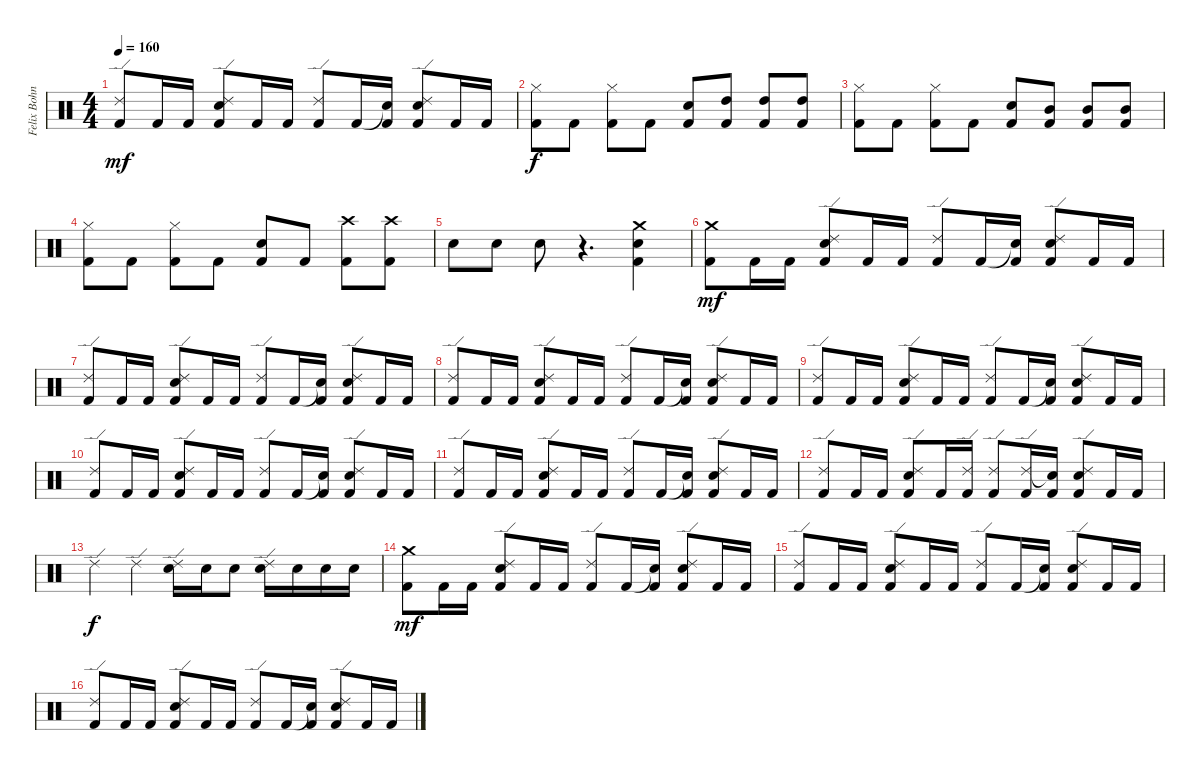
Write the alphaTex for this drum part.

\track ("Felix Bohnke" "Felix Bohn") {instrument percussion}
\staff {score}
\articulation defaults
\ts (4 4)
\tempo 160
\clef neutral
\ks c
("Ride (edge) 2" "Kick (hit) 2").8{dy mf} "Kick (hit) 2".16 "Kick (hit) 2".16 ("Ride (edge) 2" "Electric Snare (hit)" "Kick (hit) 2").8 "Kick (hit) 2".16 "Kick (hit) 2".16 ("Ride (edge) 2" "Kick (hit) 2").8 "Kick (hit) 2".16 ("Snare (hit)"{t} "Kick (hit) 2").16 ("Ride (edge) 2" "Electric Snare (hit)" "Kick (hit) 2").8 "Kick (hit) 2".16 "Kick (hit) 2".16 |
("Hi-Hat (closed)" "Kick (hit) 2").8{dy f} "Kick (hit) 2".8 ("Hi-Hat (closed)" "Kick (hit) 2").8 "Kick (hit) 2".8 ("Electric Snare (hit)" "Kick (hit) 2").8 ("High Tom (hit)" "Kick (hit) 2").8 ("High Tom (hit)" "Kick (hit) 2").8 ("High Tom (hit)" "Kick (hit) 2").8 |
("Hi-Hat (closed)" "Kick (hit) 2").8 "Kick (hit) 2".8 ("Hi-Hat (closed)" "Kick (hit) 2").8 "Kick (hit) 2".8 ("Electric Snare (hit)" "Kick (hit) 2").8 ("Mid Tom (hit)" "Kick (hit) 2").8 ("Mid Tom (hit)" "Kick (hit) 2").8 ("Mid Tom (hit)" "Kick (hit) 2").8 |
("Hi-Hat (closed)" "Kick (hit) 2").8 "Kick (hit) 2".8 ("Hi-Hat (closed)" "Kick (hit) 2").8 "Kick (hit) 2".8 ("Electric Snare (hit)" "Kick (hit) 2").8 "Kick (hit) 2".8 ("Crash high (hit)" "Kick (hit) 2").8 ("Crash high (hit)" "Kick (hit) 2").8 |
"Electric Snare (hit)".8 "Electric Snare (hit)".8 "Electric Snare (hit)".8 r.4{d} ("Crash medium (hit)" "Electric Snare (hit)" "Kick (hit) 2").4 |
("Crash medium (hit)" "Kick (hit) 2").8{dy mf} "Kick (hit) 2".16 "Kick (hit) 2".16 ("Ride (edge) 2" "Electric Snare (hit)" "Kick (hit) 2").8 "Kick (hit) 2".16 "Kick (hit) 2".16 ("Ride (edge) 2" "Kick (hit) 2").8 "Kick (hit) 2".16 ("Snare (hit)"{t} "Kick (hit) 2").16 ("Ride (edge) 2" "Electric Snare (hit)" "Kick (hit) 2").8 "Kick (hit) 2".16 "Kick (hit) 2".16 |
("Ride (edge) 2" "Kick (hit) 2").8 "Kick (hit) 2".16 "Kick (hit) 2".16 ("Ride (edge) 2" "Electric Snare (hit)" "Kick (hit) 2").8 "Kick (hit) 2".16 "Kick (hit) 2".16 ("Ride (edge) 2" "Kick (hit) 2").8 "Kick (hit) 2".16 ("Snare (hit)"{t} "Kick (hit) 2").16 ("Ride (edge) 2" "Electric Snare (hit)" "Kick (hit) 2").8 "Kick (hit) 2".16 "Kick (hit) 2".16 |
("Ride (edge) 2" "Kick (hit) 2").8 "Kick (hit) 2".16 "Kick (hit) 2".16 ("Ride (edge) 2" "Electric Snare (hit)" "Kick (hit) 2").8 "Kick (hit) 2".16 "Kick (hit) 2".16 ("Ride (edge) 2" "Kick (hit) 2").8 "Kick (hit) 2".16 ("Snare (hit)"{t} "Kick (hit) 2").16 ("Ride (edge) 2" "Electric Snare (hit)" "Kick (hit) 2").8 "Kick (hit) 2".16 "Kick (hit) 2".16 |
("Ride (edge) 2" "Kick (hit) 2").8 "Kick (hit) 2".16 "Kick (hit) 2".16 ("Ride (edge) 2" "Electric Snare (hit)" "Kick (hit) 2").8 "Kick (hit) 2".16 "Kick (hit) 2".16 ("Ride (edge) 2" "Kick (hit) 2").8 "Kick (hit) 2".16 ("Snare (hit)"{t} "Kick (hit) 2").16 ("Ride (edge) 2" "Electric Snare (hit)" "Kick (hit) 2").8 "Kick (hit) 2".16 "Kick (hit) 2".16 |
("Ride (edge) 2" "Kick (hit) 2").8 "Kick (hit) 2".16 "Kick (hit) 2".16 ("Ride (edge) 2" "Electric Snare (hit)" "Kick (hit) 2").8 "Kick (hit) 2".16 "Kick (hit) 2".16 ("Ride (edge) 2" "Kick (hit) 2").8 "Kick (hit) 2".16 ("Snare (hit)"{t} "Kick (hit) 2").16 ("Ride (edge) 2" "Electric Snare (hit)" "Kick (hit) 2").8 "Kick (hit) 2".16 "Kick (hit) 2".16 |
("Ride (edge) 2" "Kick (hit) 2").8 "Kick (hit) 2".16 "Kick (hit) 2".16 ("Ride (edge) 2" "Electric Snare (hit)" "Kick (hit) 2").8 "Kick (hit) 2".16 "Kick (hit) 2".16 ("Ride (edge) 2" "Kick (hit) 2").8 "Kick (hit) 2".16 ("Snare (hit)"{t} "Kick (hit) 2").16 ("Ride (edge) 2" "Electric Snare (hit)" "Kick (hit) 2").8 "Kick (hit) 2".16 "Kick (hit) 2".16 |
("Ride (edge) 2" "Kick (hit) 2").8 "Kick (hit) 2".16 "Kick (hit) 2".16 ("Ride (edge) 2" "Electric Snare (hit)" "Kick (hit) 2").8 "Kick (hit) 2".16 ("Ride (edge) 2" "Kick (hit) 2").16 ("Ride (edge) 2" "Kick (hit) 2").8 ("Ride (edge) 2" "Kick (hit) 2").16 ("Snare (hit)"{t} "Kick (hit) 2").16 ("Ride (edge) 2" "Electric Snare (hit)" "Kick (hit) 2").8 "Kick (hit) 2".16 "Kick (hit) 2".16 |
"Ride (edge) 2".4{dy f} "Ride (edge) 2".4 ("Ride (edge) 2" "Electric Snare (hit)").16 "Electric Snare (hit)".16 "Electric Snare (hit)".8 ("Ride (edge) 2" "Electric Snare (hit)").16 "Electric Snare (hit)".16 "Electric Snare (hit)".16 "Electric Snare (hit)".16 |
("Crash medium (hit)" "Kick (hit) 2").8{dy mf} "Kick (hit) 2".16 "Kick (hit) 2".16 ("Ride (edge) 2" "Electric Snare (hit)" "Kick (hit) 2").8 "Kick (hit) 2".16 "Kick (hit) 2".16 ("Ride (edge) 2" "Kick (hit) 2").8 "Kick (hit) 2".16 ("Snare (hit)"{t} "Kick (hit) 2").16 ("Ride (edge) 2" "Electric Snare (hit)" "Kick (hit) 2").8 "Kick (hit) 2".16 "Kick (hit) 2".16 |
("Ride (edge) 2" "Kick (hit) 2").8 "Kick (hit) 2".16 "Kick (hit) 2".16 ("Ride (edge) 2" "Electric Snare (hit)" "Kick (hit) 2").8 "Kick (hit) 2".16 "Kick (hit) 2".16 ("Ride (edge) 2" "Kick (hit) 2").8 "Kick (hit) 2".16 ("Snare (hit)"{t} "Kick (hit) 2").16 ("Ride (edge) 2" "Electric Snare (hit)" "Kick (hit) 2").8 "Kick (hit) 2".16 "Kick (hit) 2".16 |
("Ride (edge) 2" "Kick (hit) 2").8 "Kick (hit) 2".16 "Kick (hit) 2".16 ("Ride (edge) 2" "Electric Snare (hit)" "Kick (hit) 2").8 "Kick (hit) 2".16 "Kick (hit) 2".16 ("Ride (edge) 2" "Kick (hit) 2").8 "Kick (hit) 2".16 ("Snare (hit)"{t} "Kick (hit) 2").16 ("Ride (edge) 2" "Electric Snare (hit)" "Kick (hit) 2").8 "Kick (hit) 2".16 "Kick (hit) 2".16
